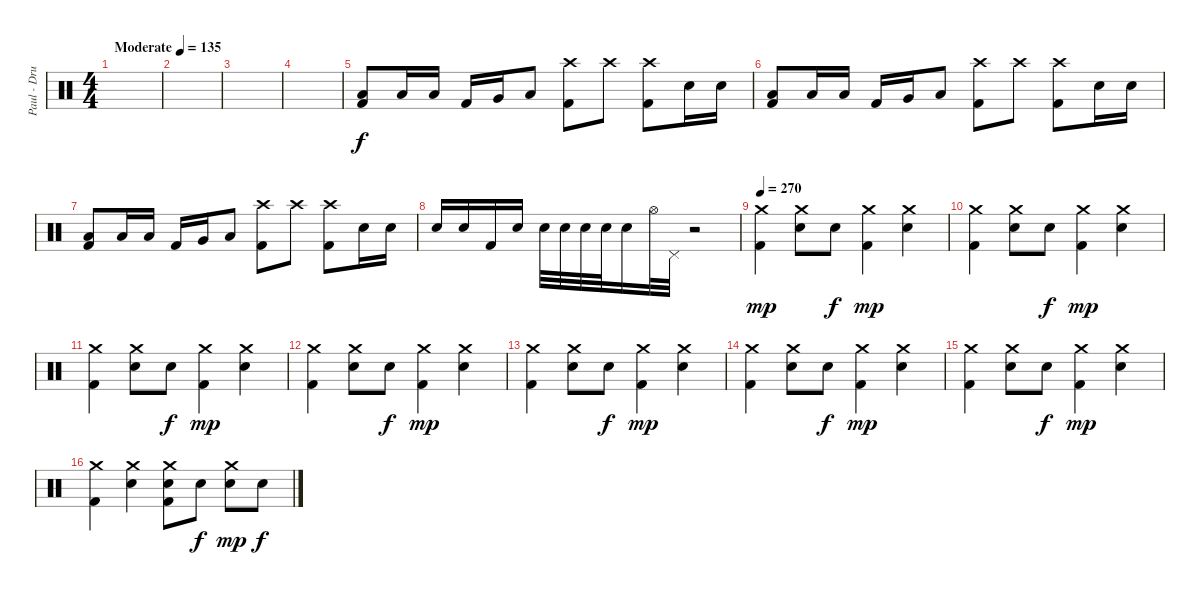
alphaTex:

\track ("Paul - Drums" "Paul - Dru") {instrument percussion}
\staff {score}
\articulation defaults
\ts (4 4)
\tempo (135 "Moderate")
\clef neutral
\ks c
|
|
|
|
("Low Tom (hit)" "Kick (hit) 2").8 "Low Tom (hit)".16 "Low Tom (hit)".16 "Kick (hit) 2".16 "Very Low Tom (hit)".16 "Low Floor Tom (hit)".8 ("Crash high (hit)" "Kick (hit) 2").8 "Crash high (hit)".8 ("Crash high (hit)" "Kick (hit) 2").8 "Electric Snare (hit)".16 "Electric Snare (hit)".16 |
("Low Tom (hit)" "Kick (hit) 2").8 "Low Tom (hit)".16 "Low Tom (hit)".16 "Kick (hit) 2".16 "Very Low Tom (hit)".16 "Low Floor Tom (hit)".8 ("Crash high (hit)" "Kick (hit) 2").8 "Crash high (hit)".8 ("Crash high (hit)" "Kick (hit) 2").8 "Electric Snare (hit)".16 "Electric Snare (hit)".16 |
("Low Tom (hit)" "Kick (hit) 2").8 "Low Tom (hit)".16 "Low Tom (hit)".16 "Kick (hit) 2".16 "Very Low Tom (hit)".16 "Low Floor Tom (hit)".8 ("Crash high (hit)" "Kick (hit) 2").8 "Crash high (hit)".8 ("Crash high (hit)" "Kick (hit) 2").8 "Electric Snare (hit)".16 "Electric Snare (hit)".16 |
"Electric Snare (hit)".16 "Electric Snare (hit)".16 "Kick (hit) 2".16 "Electric Snare (hit)".16 "Electric Snare (hit)".32 "Electric Snare (hit)".32 "Electric Snare (hit)".32 "Electric Snare (hit)".32 "Electric Snare (hit)".16 "Hi-Hat (open)".32 "Pedal Hi-Hat (hit)".32 r.2 |
\tempo 270
("Crash medium (hit)" "Kick (hit) 2").4{dy mp} ("Crash medium (hit)" "Electric Snare (hit)").8 "Electric Snare (hit)".8{dy f} ("Crash medium (hit)" "Kick (hit) 2").4{dy mp} ("Crash medium (hit)" "Electric Snare (hit)").4 |
("Crash medium (hit)" "Kick (hit) 2").4 ("Crash medium (hit)" "Electric Snare (hit)").8 "Electric Snare (hit)".8{dy f} ("Crash medium (hit)" "Kick (hit) 2").4{dy mp} ("Crash medium (hit)" "Electric Snare (hit)").4 |
("Crash medium (hit)" "Kick (hit) 2").4 ("Crash medium (hit)" "Electric Snare (hit)").8 "Electric Snare (hit)".8{dy f} ("Crash medium (hit)" "Kick (hit) 2").4{dy mp} ("Crash medium (hit)" "Electric Snare (hit)").4 |
("Crash medium (hit)" "Kick (hit) 2").4 ("Crash medium (hit)" "Electric Snare (hit)").8 "Electric Snare (hit)".8{dy f} ("Crash medium (hit)" "Kick (hit) 2").4{dy mp} ("Crash medium (hit)" "Electric Snare (hit)").4 |
("Crash medium (hit)" "Kick (hit) 2").4 ("Crash medium (hit)" "Electric Snare (hit)").8 "Electric Snare (hit)".8{dy f} ("Crash medium (hit)" "Kick (hit) 2").4{dy mp} ("Crash medium (hit)" "Electric Snare (hit)").4 |
("Crash medium (hit)" "Kick (hit) 2").4 ("Crash medium (hit)" "Electric Snare (hit)").8 "Electric Snare (hit)".8{dy f} ("Crash medium (hit)" "Kick (hit) 2").4{dy mp} ("Crash medium (hit)" "Electric Snare (hit)").4 |
("Crash medium (hit)" "Kick (hit) 2").4 ("Crash medium (hit)" "Electric Snare (hit)").8 "Electric Snare (hit)".8{dy f} ("Crash medium (hit)" "Kick (hit) 2").4{dy mp} ("Crash medium (hit)" "Electric Snare (hit)").4 |
("Crash medium (hit)" "Kick (hit) 2").4 ("Crash medium (hit)" "Electric Snare (hit)").4 ("Crash medium (hit)" "Electric Snare (hit)" "Kick (hit) 2").8 "Electric Snare (hit)".8{dy f} ("Crash medium (hit)" "Electric Snare (hit)").8{dy mp} "Electric Snare (hit)".8{dy f}
